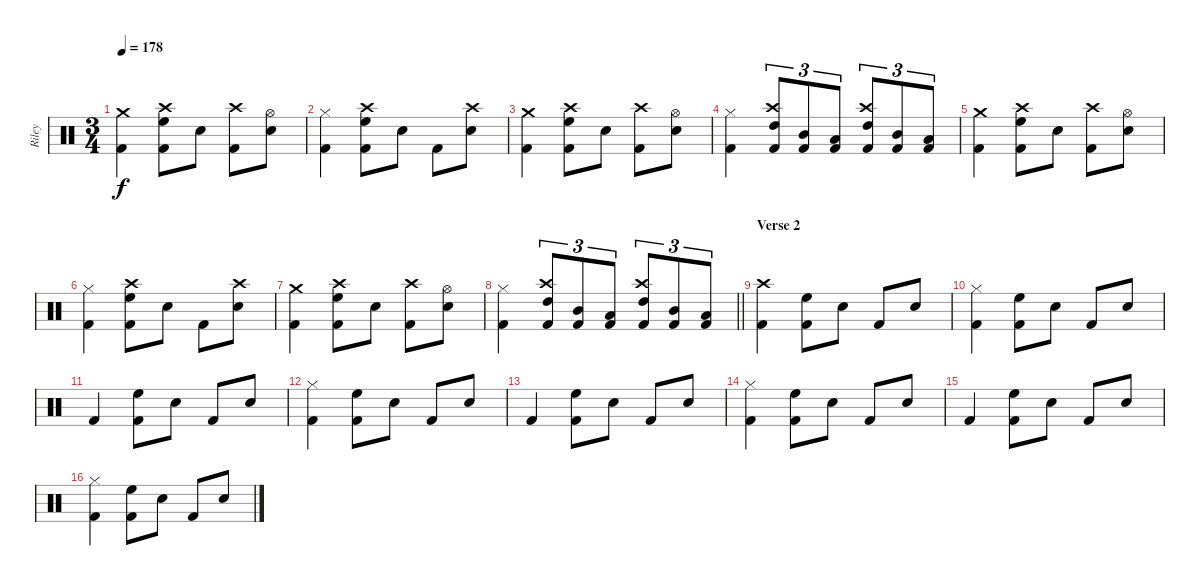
\track ("Riley" "Riley") {instrument percussion}
\staff {score}
\articulation defaults
\ts (3 4)
\tempo 178
\clef neutral
\ks c
("Crash medium (hit)" "Kick (hit) 2").4{dy f} ("Crash high (hit)" "High Floor Tom (hit)" "Kick (hit) 2").8 "Snare (hit) 2".8 ("Crash high (hit)" "Kick (hit) 2").8 ("Hi-Hat (open)" "Snare (hit) 2").8 |
("Hi-Hat (closed)" "Kick (hit) 2").4 ("Crash high (hit)" "High Floor Tom (hit)" "Kick (hit) 2").8 "Snare (hit) 2".8 "Kick (hit) 2".8 ("Crash high (hit)" "Snare (hit) 2").8 |
("Crash medium (hit)" "Kick (hit) 2").4 ("Crash high (hit)" "High Floor Tom (hit)" "Kick (hit) 2").8 "Snare (hit) 2".8 ("Crash high (hit)" "Kick (hit) 2").8 ("Hi-Hat (open)" "Snare (hit) 2").8 |
("Hi-Hat (closed)" "Kick (hit) 2").4 ("Crash high (hit)" "High Tom (hit)" "Kick (hit) 2").8{tu (3 2)} ("Mid Tom (hit)" "Kick (hit) 2").8{tu (3 2)} ("Low Tom (hit)" "Kick (hit) 2").8{tu (3 2)} ("Crash high (hit)" "High Tom (hit)" "Kick (hit) 2").8{tu (3 2)} ("Mid Tom (hit)" "Kick (hit) 2").8{tu (3 2)} ("Low Tom (hit)" "Kick (hit) 2").8{tu (3 2)} |
("Crash medium (hit)" "Kick (hit) 2").4 ("Crash high (hit)" "High Floor Tom (hit)" "Kick (hit) 2").8 "Snare (hit) 2".8 ("Crash high (hit)" "Kick (hit) 2").8 ("Hi-Hat (open)" "Snare (hit) 2").8 |
("Hi-Hat (closed)" "Kick (hit) 2").4 ("Crash high (hit)" "High Floor Tom (hit)" "Kick (hit) 2").8 "Snare (hit) 2".8 "Kick (hit) 2".8 ("Crash high (hit)" "Snare (hit) 2").8 |
("Crash medium (hit)" "Kick (hit) 2").4 ("Crash high (hit)" "High Floor Tom (hit)" "Kick (hit) 2").8 "Snare (hit) 2".8 ("Crash high (hit)" "Kick (hit) 2").8 ("Hi-Hat (open)" "Snare (hit) 2").8 |
\barLineRight lightlight
("Hi-Hat (closed)" "Kick (hit) 2").4 ("Crash high (hit)" "High Tom (hit)" "Kick (hit) 2").8{tu (3 2)} ("Mid Tom (hit)" "Kick (hit) 2").8{tu (3 2)} ("Low Tom (hit)" "Kick (hit) 2").8{tu (3 2)} ("Crash high (hit)" "High Tom (hit)" "Kick (hit) 2").8{tu (3 2)} ("Mid Tom (hit)" "Kick (hit) 2").8{tu (3 2)} ("Low Tom (hit)" "Kick (hit) 2").8{tu (3 2)} |
\section ("" "Verse 2")
("Crash high (hit)" "Kick (hit) 2").4 ("High Floor Tom (hit)" "Kick (hit) 2").8 "Snare (hit) 2".8 "Kick (hit) 2".8 "Snare (hit) 2".8 |
("Hi-Hat (closed)" "Kick (hit) 2").4 ("High Floor Tom (hit)" "Kick (hit) 2").8 "Snare (hit) 2".8 "Kick (hit) 2".8 "Snare (hit) 2".8 |
"Kick (hit) 2".4 ("High Floor Tom (hit)" "Kick (hit) 2").8 "Snare (hit) 2".8 "Kick (hit) 2".8 "Snare (hit) 2".8 |
("Hi-Hat (closed)" "Kick (hit) 2").4 ("High Floor Tom (hit)" "Kick (hit) 2").8 "Snare (hit) 2".8 "Kick (hit) 2".8 "Snare (hit) 2".8 |
"Kick (hit) 2".4 ("High Floor Tom (hit)" "Kick (hit) 2").8 "Snare (hit) 2".8 "Kick (hit) 2".8 "Snare (hit) 2".8 |
("Hi-Hat (closed)" "Kick (hit) 2").4 ("High Floor Tom (hit)" "Kick (hit) 2").8 "Snare (hit) 2".8 "Kick (hit) 2".8 "Snare (hit) 2".8 |
"Kick (hit) 2".4 ("High Floor Tom (hit)" "Kick (hit) 2").8 "Snare (hit) 2".8 "Kick (hit) 2".8 "Snare (hit) 2".8 |
("Hi-Hat (closed)" "Kick (hit) 2").4 ("High Floor Tom (hit)" "Kick (hit) 2").8 "Snare (hit) 2".8 "Kick (hit) 2".8 "Snare (hit) 2".8
